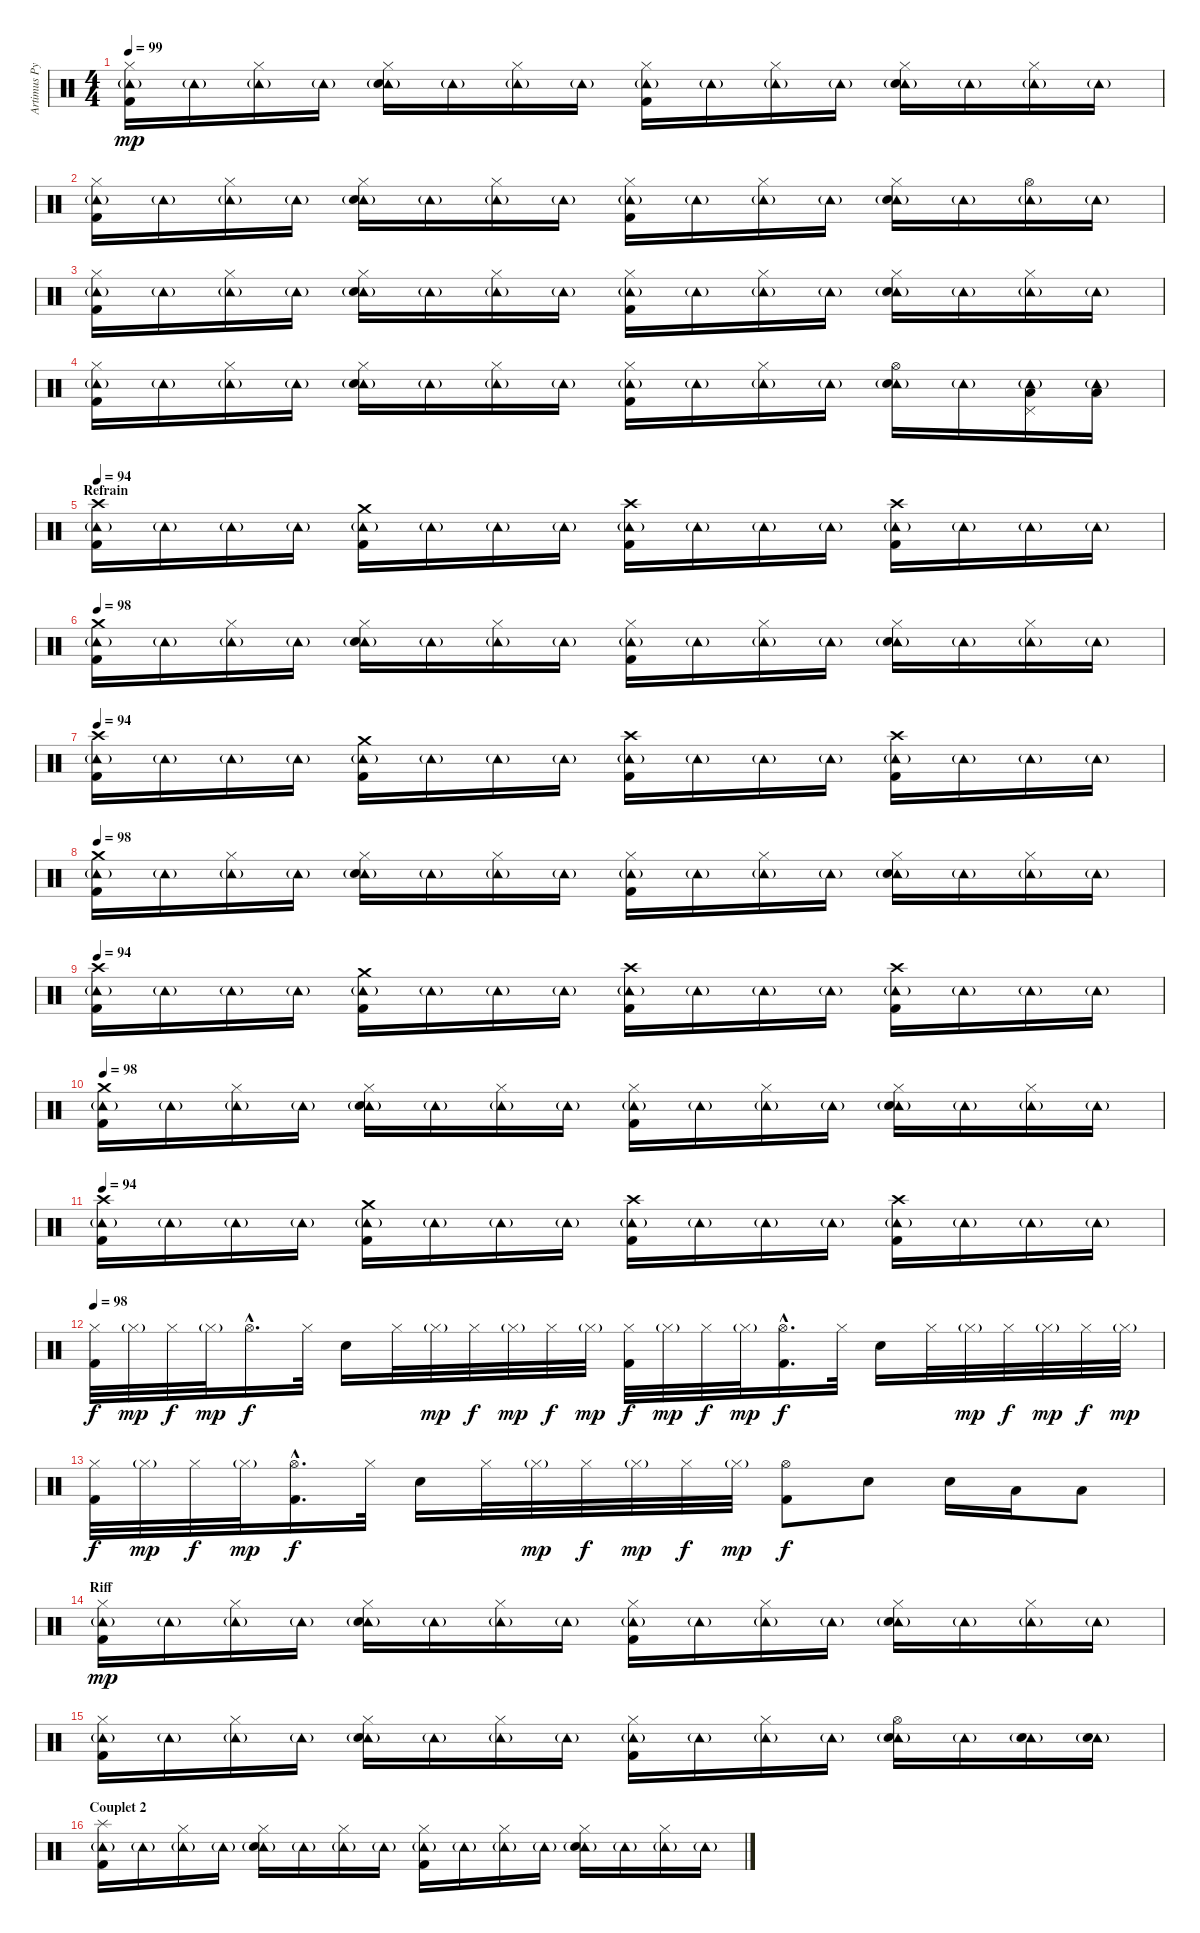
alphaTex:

\track ("Artimus Pyle (drums)" "Artimus Py") {instrument percussion}
\staff {score}
\articulation defaults
\ts (4 4)
\tempo 99
\clef neutral
\ks c
("Tambourine (hit)"{g} "Hi-Hat (closed)" "Kick (hit) 2").16{dy mp} "Tambourine (hit)"{g}.16 ("Tambourine (hit)"{g} "Hi-Hat (closed)").16 "Tambourine (hit)"{g}.16 ("Tambourine (hit)"{g} "Hi-Hat (closed)" "Electric Snare (hit)").16 "Tambourine (hit)"{g}.16 ("Tambourine (hit)"{g} "Hi-Hat (closed)").16 "Tambourine (hit)"{g}.16 ("Tambourine (hit)"{g} "Hi-Hat (closed)" "Kick (hit) 2").16 "Tambourine (hit)"{g}.16 ("Tambourine (hit)"{g} "Hi-Hat (closed)").16 "Tambourine (hit)"{g}.16 ("Tambourine (hit)"{g} "Hi-Hat (closed)" "Electric Snare (hit)").16 "Tambourine (hit)"{g}.16 ("Tambourine (hit)"{g} "Hi-Hat (closed)").16 "Tambourine (hit)"{g}.16 |
("Tambourine (hit)"{g} "Hi-Hat (closed)" "Kick (hit) 2").16 "Tambourine (hit)"{g}.16 ("Tambourine (hit)"{g} "Hi-Hat (closed)").16 "Tambourine (hit)"{g}.16 ("Tambourine (hit)"{g} "Hi-Hat (closed)" "Electric Snare (hit)").16 "Tambourine (hit)"{g}.16 ("Tambourine (hit)"{g} "Hi-Hat (closed)").16 "Tambourine (hit)"{g}.16 ("Tambourine (hit)"{g} "Hi-Hat (closed)" "Kick (hit) 2").16 "Tambourine (hit)"{g}.16 ("Tambourine (hit)"{g} "Hi-Hat (closed)").16 "Tambourine (hit)"{g}.16 ("Tambourine (hit)"{g} "Hi-Hat (closed)" "Electric Snare (hit)").16 "Tambourine (hit)"{g}.16 ("Tambourine (hit)"{g} "Hi-Hat (open)").16 "Tambourine (hit)"{g}.16 |
("Tambourine (hit)"{g} "Hi-Hat (closed)" "Kick (hit) 2").16 "Tambourine (hit)"{g}.16 ("Tambourine (hit)"{g} "Hi-Hat (closed)").16 "Tambourine (hit)"{g}.16 ("Tambourine (hit)"{g} "Hi-Hat (closed)" "Electric Snare (hit)").16 "Tambourine (hit)"{g}.16 ("Tambourine (hit)"{g} "Hi-Hat (closed)").16 "Tambourine (hit)"{g}.16 ("Tambourine (hit)"{g} "Hi-Hat (closed)" "Kick (hit) 2").16 "Tambourine (hit)"{g}.16 ("Tambourine (hit)"{g} "Hi-Hat (closed)").16 "Tambourine (hit)"{g}.16 ("Tambourine (hit)"{g} "Hi-Hat (closed)" "Electric Snare (hit)").16 "Tambourine (hit)"{g}.16 ("Tambourine (hit)"{g} "Hi-Hat (closed)").16 "Tambourine (hit)"{g}.16 |
("Tambourine (hit)"{g} "Hi-Hat (closed)" "Kick (hit) 2").16 "Tambourine (hit)"{g}.16 ("Tambourine (hit)"{g} "Hi-Hat (closed)").16 "Tambourine (hit)"{g}.16 ("Tambourine (hit)"{g} "Hi-Hat (closed)" "Electric Snare (hit)").16 "Tambourine (hit)"{g}.16 ("Tambourine (hit)"{g} "Hi-Hat (closed)").16 "Tambourine (hit)"{g}.16 ("Tambourine (hit)"{g} "Hi-Hat (closed)" "Kick (hit) 2").16 "Tambourine (hit)"{g}.16 ("Tambourine (hit)"{g} "Hi-Hat (closed)").16 "Tambourine (hit)"{g}.16 ("Tambourine (hit)"{g} "Hi-Hat (open)" "Electric Snare (hit)").16 "Tambourine (hit)"{g}.16 ("Tambourine (hit)"{g} "Pedal Hi-Hat (hit)" "Low Tom (hit)").16 ("Tambourine (hit)"{g} "Low Tom (hit)").16 |
\section ("" "Refrain")
\tempo 94
("Tambourine (hit)"{g} "Crash high (hit)" "Kick (hit) 2").16 "Tambourine (hit)"{g}.16 "Tambourine (hit)"{g}.16 "Tambourine (hit)"{g}.16 ("Tambourine (hit)"{g} "Crash medium (hit)" "Kick (hit) 2").16 "Tambourine (hit)"{g}.16 "Tambourine (hit)"{g}.16 "Tambourine (hit)"{g}.16 ("Tambourine (hit)"{g} "Crash high (hit)" "Kick (hit) 2").16 "Tambourine (hit)"{g}.16 "Tambourine (hit)"{g}.16 "Tambourine (hit)"{g}.16 ("Tambourine (hit)"{g} "Crash high (hit)" "Kick (hit) 2").16 "Tambourine (hit)"{g}.16 "Tambourine (hit)"{g}.16 "Tambourine (hit)"{g}.16 |
\tempo 98
("Tambourine (hit)"{g} "Crash medium (hit)" "Kick (hit) 2").16 "Tambourine (hit)"{g}.16 ("Tambourine (hit)"{g} "Hi-Hat (closed)").16 "Tambourine (hit)"{g}.16 ("Tambourine (hit)"{g} "Hi-Hat (closed)" "Electric Snare (hit)").16 "Tambourine (hit)"{g}.16 ("Tambourine (hit)"{g} "Hi-Hat (closed)").16 "Tambourine (hit)"{g}.16 ("Tambourine (hit)"{g} "Hi-Hat (closed)" "Kick (hit) 2").16 "Tambourine (hit)"{g}.16 ("Tambourine (hit)"{g} "Hi-Hat (closed)").16 "Tambourine (hit)"{g}.16 ("Tambourine (hit)"{g} "Hi-Hat (closed)" "Electric Snare (hit)").16 "Tambourine (hit)"{g}.16 ("Tambourine (hit)"{g} "Hi-Hat (closed)").16 "Tambourine (hit)"{g}.16 |
\tempo 94
("Tambourine (hit)"{g} "Crash high (hit)" "Kick (hit) 2").16 "Tambourine (hit)"{g}.16 "Tambourine (hit)"{g}.16 "Tambourine (hit)"{g}.16 ("Tambourine (hit)"{g} "Crash medium (hit)" "Kick (hit) 2").16 "Tambourine (hit)"{g}.16 "Tambourine (hit)"{g}.16 "Tambourine (hit)"{g}.16 ("Tambourine (hit)"{g} "Crash high (hit)" "Kick (hit) 2").16 "Tambourine (hit)"{g}.16 "Tambourine (hit)"{g}.16 "Tambourine (hit)"{g}.16 ("Tambourine (hit)"{g} "Crash high (hit)" "Kick (hit) 2").16 "Tambourine (hit)"{g}.16 "Tambourine (hit)"{g}.16 "Tambourine (hit)"{g}.16 |
\tempo 98
("Tambourine (hit)"{g} "Crash medium (hit)" "Kick (hit) 2").16 "Tambourine (hit)"{g}.16 ("Tambourine (hit)"{g} "Hi-Hat (closed)").16 "Tambourine (hit)"{g}.16 ("Tambourine (hit)"{g} "Hi-Hat (closed)" "Electric Snare (hit)").16 "Tambourine (hit)"{g}.16 ("Tambourine (hit)"{g} "Hi-Hat (closed)").16 "Tambourine (hit)"{g}.16 ("Tambourine (hit)"{g} "Hi-Hat (closed)" "Kick (hit) 2").16 "Tambourine (hit)"{g}.16 ("Tambourine (hit)"{g} "Hi-Hat (closed)").16 "Tambourine (hit)"{g}.16 ("Tambourine (hit)"{g} "Hi-Hat (closed)" "Electric Snare (hit)").16 "Tambourine (hit)"{g}.16 ("Tambourine (hit)"{g} "Hi-Hat (closed)").16 "Tambourine (hit)"{g}.16 |
\tempo 94
("Tambourine (hit)"{g} "Crash high (hit)" "Kick (hit) 2").16 "Tambourine (hit)"{g}.16 "Tambourine (hit)"{g}.16 "Tambourine (hit)"{g}.16 ("Tambourine (hit)"{g} "Crash medium (hit)" "Kick (hit) 2").16 "Tambourine (hit)"{g}.16 "Tambourine (hit)"{g}.16 "Tambourine (hit)"{g}.16 ("Tambourine (hit)"{g} "Crash high (hit)" "Kick (hit) 2").16 "Tambourine (hit)"{g}.16 "Tambourine (hit)"{g}.16 "Tambourine (hit)"{g}.16 ("Tambourine (hit)"{g} "Crash high (hit)" "Kick (hit) 2").16 "Tambourine (hit)"{g}.16 "Tambourine (hit)"{g}.16 "Tambourine (hit)"{g}.16 |
\tempo 98
("Tambourine (hit)"{g} "Crash medium (hit)" "Kick (hit) 2").16 "Tambourine (hit)"{g}.16 ("Tambourine (hit)"{g} "Hi-Hat (closed)").16 "Tambourine (hit)"{g}.16 ("Tambourine (hit)"{g} "Hi-Hat (closed)" "Electric Snare (hit)").16 "Tambourine (hit)"{g}.16 ("Tambourine (hit)"{g} "Hi-Hat (closed)").16 "Tambourine (hit)"{g}.16 ("Tambourine (hit)"{g} "Hi-Hat (closed)" "Kick (hit) 2").16 "Tambourine (hit)"{g}.16 ("Tambourine (hit)"{g} "Hi-Hat (closed)").16 "Tambourine (hit)"{g}.16 ("Tambourine (hit)"{g} "Hi-Hat (closed)" "Electric Snare (hit)").16 "Tambourine (hit)"{g}.16 ("Tambourine (hit)"{g} "Hi-Hat (closed)").16 "Tambourine (hit)"{g}.16 |
\tempo 94
("Tambourine (hit)"{g} "Crash high (hit)" "Kick (hit) 2").16 "Tambourine (hit)"{g}.16 "Tambourine (hit)"{g}.16 "Tambourine (hit)"{g}.16 ("Tambourine (hit)"{g} "Crash medium (hit)" "Kick (hit) 2").16 "Tambourine (hit)"{g}.16 "Tambourine (hit)"{g}.16 "Tambourine (hit)"{g}.16 ("Tambourine (hit)"{g} "Crash high (hit)" "Kick (hit) 2").16 "Tambourine (hit)"{g}.16 "Tambourine (hit)"{g}.16 "Tambourine (hit)"{g}.16 ("Tambourine (hit)"{g} "Crash high (hit)" "Kick (hit) 2").16 "Tambourine (hit)"{g}.16 "Tambourine (hit)"{g}.16 "Tambourine (hit)"{g}.16 |
\tempo 98
("Hi-Hat (closed)" "Kick (hit) 2").32{dy f} "Hi-Hat (closed)"{g}.32{dy mp} "Hi-Hat (closed)".32{dy f} "Hi-Hat (closed)"{g}.32{dy mp} "Hi-Hat (open)"{hac}.16{d dy f} "Hi-Hat (closed)".32 "Electric Snare (hit)".16 "Hi-Hat (closed)".32 "Hi-Hat (closed)"{g}.32{dy mp} "Hi-Hat (closed)".32{dy f} "Hi-Hat (closed)"{g}.32{dy mp} "Hi-Hat (closed)".32{dy f} "Hi-Hat (closed)"{g}.32{dy mp} ("Hi-Hat (closed)" "Kick (hit) 2").32{dy f} "Hi-Hat (closed)"{g}.32{dy mp} "Hi-Hat (closed)".32{dy f} "Hi-Hat (closed)"{g}.32{dy mp} ("Hi-Hat (open)"{hac} "Kick (hit) 2"{hac}).16{d dy f} "Hi-Hat (closed)".32 "Electric Snare (hit)".16 "Hi-Hat (closed)".32 "Hi-Hat (closed)"{g}.32{dy mp} "Hi-Hat (closed)".32{dy f} "Hi-Hat (closed)"{g}.32{dy mp} "Hi-Hat (closed)".32{dy f} "Hi-Hat (closed)"{g}.32{dy mp} |
("Hi-Hat (closed)" "Kick (hit) 2").32{dy f} "Hi-Hat (closed)"{g}.32{dy mp} "Hi-Hat (closed)".32{dy f} "Hi-Hat (closed)"{g}.32{dy mp} ("Hi-Hat (open)"{hac} "Kick (hit) 2"{hac}).16{d dy f} "Hi-Hat (closed)".32 "Electric Snare (hit)".16 "Hi-Hat (closed)".32 "Hi-Hat (closed)"{g}.32{dy mp} "Hi-Hat (closed)".32{dy f} "Hi-Hat (closed)"{g}.32{dy mp} "Hi-Hat (closed)".32{dy f} "Hi-Hat (closed)"{g}.32{dy mp} ("Hi-Hat (open)" "Kick (hit) 2").8{dy f} "Electric Snare (hit)".8 "Electric Snare (hit)".16 "Low Tom (hit)".16 "Low Tom (hit)".8 |
\section ("" "Riff")
("Tambourine (hit)"{g} "Hi-Hat (closed)" "Kick (hit) 2").16{dy mp} "Tambourine (hit)"{g}.16 ("Tambourine (hit)"{g} "Hi-Hat (closed)").16 "Tambourine (hit)"{g}.16 ("Tambourine (hit)"{g} "Hi-Hat (closed)" "Electric Snare (hit)").16 "Tambourine (hit)"{g}.16 ("Tambourine (hit)"{g} "Hi-Hat (closed)").16 "Tambourine (hit)"{g}.16 ("Tambourine (hit)"{g} "Hi-Hat (closed)" "Kick (hit) 2").16 "Tambourine (hit)"{g}.16 ("Tambourine (hit)"{g} "Hi-Hat (closed)").16 "Tambourine (hit)"{g}.16 ("Tambourine (hit)"{g} "Hi-Hat (closed)" "Electric Snare (hit)").16 "Tambourine (hit)"{g}.16 ("Tambourine (hit)"{g} "Hi-Hat (closed)").16 "Tambourine (hit)"{g}.16 |
("Tambourine (hit)"{g} "Hi-Hat (closed)" "Kick (hit) 2").16 "Tambourine (hit)"{g}.16 ("Tambourine (hit)"{g} "Hi-Hat (closed)").16 "Tambourine (hit)"{g}.16 ("Tambourine (hit)"{g} "Hi-Hat (closed)" "Electric Snare (hit)").16 "Tambourine (hit)"{g}.16 ("Tambourine (hit)"{g} "Hi-Hat (closed)").16 "Tambourine (hit)"{g}.16 ("Tambourine (hit)"{g} "Hi-Hat (closed)" "Kick (hit) 2").16 "Tambourine (hit)"{g}.16 ("Tambourine (hit)"{g} "Hi-Hat (closed)").16 "Tambourine (hit)"{g}.16 ("Tambourine (hit)"{g} "Hi-Hat (open)" "Electric Snare (hit)").16 "Tambourine (hit)"{g}.16 ("Tambourine (hit)"{g} "Electric Snare (hit)").16 ("Tambourine (hit)"{g} "Electric Snare (hit)").16 |
\section ("" "Couplet 2")
("Tambourine (hit)"{g} "Splash (hit)" "Kick (hit) 2").16 "Tambourine (hit)"{g}.16 ("Tambourine (hit)"{g} "Hi-Hat (closed)").16 "Tambourine (hit)"{g}.16 ("Tambourine (hit)"{g} "Hi-Hat (closed)" "Electric Snare (hit)").16 "Tambourine (hit)"{g}.16 ("Tambourine (hit)"{g} "Hi-Hat (closed)").16 "Tambourine (hit)"{g}.16 ("Tambourine (hit)"{g} "Hi-Hat (closed)" "Kick (hit) 2").16 "Tambourine (hit)"{g}.16 ("Tambourine (hit)"{g} "Hi-Hat (closed)").16 "Tambourine (hit)"{g}.16 ("Tambourine (hit)"{g} "Hi-Hat (closed)" "Electric Snare (hit)").16 "Tambourine (hit)"{g}.16 ("Tambourine (hit)"{g} "Hi-Hat (closed)").16 "Tambourine (hit)"{g}.16
